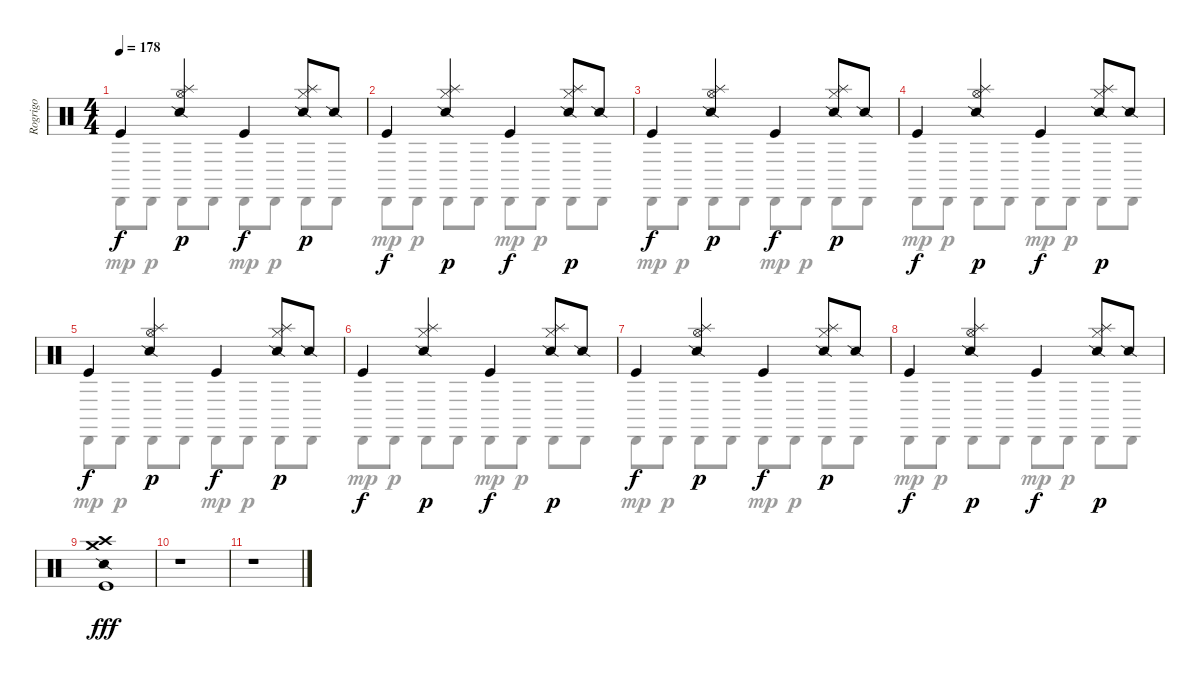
\track ("Rogrigo" "Rogrigo") {instrument percussion}
\staff {score}
\articulation defaults
\voice
\ts (4 4)
\tempo 178
\clef neutral
\ks c "Kick (hit)".4{dy f}
("Hi-Hat (open)" "Splash (hit)" "Snare (side stick) 2").4{dy p} "Kick (hit)".4{dy f} ("Hi-Hat (closed)" "Splash (hit)" "Snare (side stick) 2").8{dy p} "Snare (side stick) 2".8 |
"Kick (hit)".4{dy f} ("Hi-Hat (closed)" "Splash (hit)" "Snare (side stick) 2").4{dy p} "Kick (hit)".4{dy f} ("Hi-Hat (closed)" "Splash (hit)" "Snare (side stick) 2").8{dy p} "Snare (side stick) 2".8 |
"Kick (hit)".4{dy f} ("Hi-Hat (open)" "Splash (hit)" "Snare (side stick) 2").4{dy p} "Kick (hit)".4{dy f} ("Hi-Hat (closed)" "Splash (hit)" "Snare (side stick) 2").8{dy p} "Snare (side stick) 2".8 |
"Kick (hit)".4{dy f} ("Hi-Hat (open)" "Splash (hit)" "Snare (side stick) 2").4{dy p} "Kick (hit)".4{dy f} ("Hi-Hat (closed)" "Splash (hit)" "Snare (side stick) 2").8{dy p} "Snare (side stick) 2".8 |
"Kick (hit)".4{dy f} ("Hi-Hat (open)" "Splash (hit)" "Snare (side stick) 2").4{dy p} "Kick (hit)".4{dy f} ("Hi-Hat (closed)" "Splash (hit)" "Snare (side stick) 2").8{dy p} "Snare (side stick) 2".8 |
"Kick (hit)".4{dy f} ("Hi-Hat (closed)" "Splash (hit)" "Snare (side stick) 2").4{dy p} "Kick (hit)".4{dy f} ("Hi-Hat (closed)" "Splash (hit)" "Snare (side stick) 2").8{dy p} "Snare (side stick) 2".8 |
"Kick (hit)".4{dy f} ("Hi-Hat (open)" "Splash (hit)" "Snare (side stick) 2").4{dy p} "Kick (hit)".4{dy f} ("Hi-Hat (closed)" "Splash (hit)" "Snare (side stick) 2").8{dy p} "Snare (side stick) 2".8 |
"Kick (hit)".4{dy f} ("Hi-Hat (open)" "Splash (hit)" "Snare (side stick) 2").4{dy p} "Kick (hit)".4{dy f} ("Hi-Hat (closed)" "Splash (hit)" "Snare (side stick) 2").8{dy p} "Snare (side stick) 2".8 |
("Crash medium (hit)" "Crash high (hit)" "Snare (side stick) 2" "Kick (hit)").1{dy fff} |
r.1 |
r.1
\voice
\clef neutral
\ottava regular
\simile none
\ks c "Cabasa (hit)".8{dy mp} "Cabasa (hit)".8{dy p} "Cabasa (hit)".8 "Cabasa (hit)".8 "Cabasa (hit)".8{dy mp} "Cabasa (hit)".8{dy p} "Cabasa (hit)".8 "Cabasa (hit)".8
|
"Cabasa (hit)".8{dy mp} "Cabasa (hit)".8{dy p} "Cabasa (hit)".8 "Cabasa (hit)".8 "Cabasa (hit)".8{dy mp} "Cabasa (hit)".8{dy p} "Cabasa (hit)".8 "Cabasa (hit)".8 |
"Cabasa (hit)".8{dy mp} "Cabasa (hit)".8{dy p} "Cabasa (hit)".8 "Cabasa (hit)".8 "Cabasa (hit)".8{dy mp} "Cabasa (hit)".8{dy p} "Cabasa (hit)".8 "Cabasa (hit)".8 |
"Cabasa (hit)".8{dy mp} "Cabasa (hit)".8{dy p} "Cabasa (hit)".8 "Cabasa (hit)".8 "Cabasa (hit)".8{dy mp} "Cabasa (hit)".8{dy p} "Cabasa (hit)".8 "Cabasa (hit)".8 |
"Cabasa (hit)".8{dy mp} "Cabasa (hit)".8{dy p} "Cabasa (hit)".8 "Cabasa (hit)".8 "Cabasa (hit)".8{dy mp} "Cabasa (hit)".8{dy p} "Cabasa (hit)".8 "Cabasa (hit)".8 |
"Cabasa (hit)".8{dy mp} "Cabasa (hit)".8{dy p} "Cabasa (hit)".8 "Cabasa (hit)".8 "Cabasa (hit)".8{dy mp} "Cabasa (hit)".8{dy p} "Cabasa (hit)".8 "Cabasa (hit)".8 |
"Cabasa (hit)".8{dy mp} "Cabasa (hit)".8{dy p} "Cabasa (hit)".8 "Cabasa (hit)".8 "Cabasa (hit)".8{dy mp} "Cabasa (hit)".8{dy p} "Cabasa (hit)".8 "Cabasa (hit)".8 |
"Cabasa (hit)".8{dy mp} "Cabasa (hit)".8{dy p} "Cabasa (hit)".8 "Cabasa (hit)".8 "Cabasa (hit)".8{dy mp} "Cabasa (hit)".8{dy p} "Cabasa (hit)".8 "Cabasa (hit)".8 |
|
|
